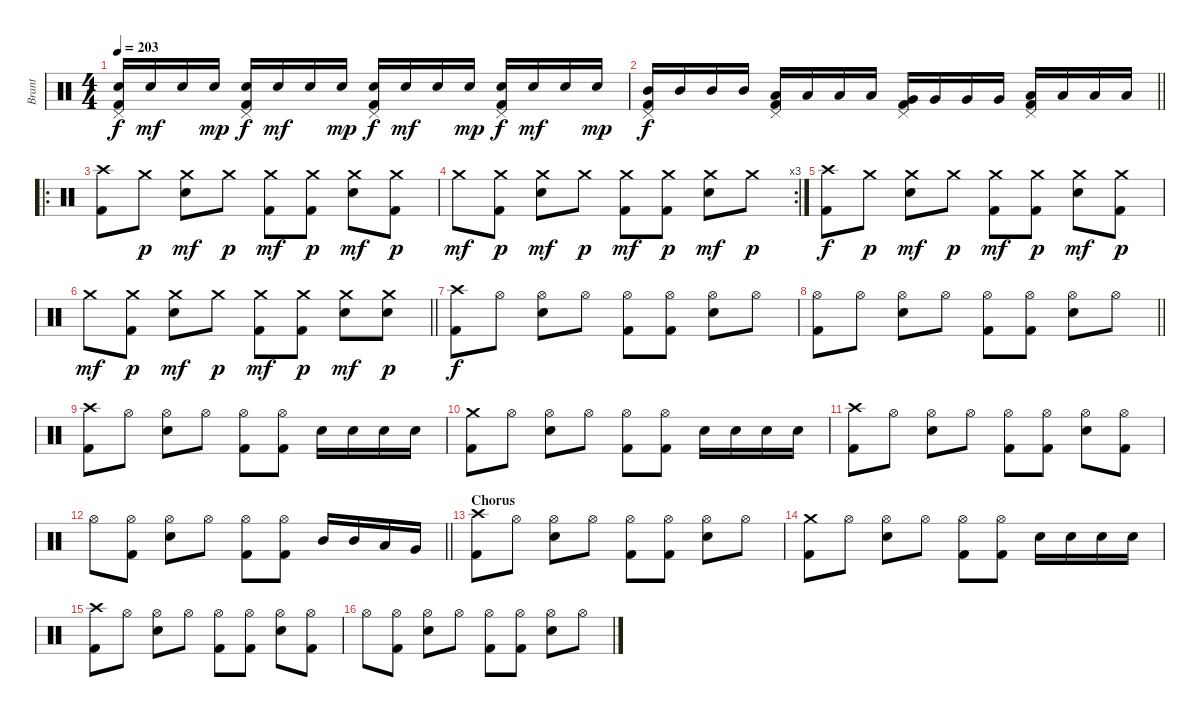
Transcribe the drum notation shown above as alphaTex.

\track ("Brant" "Brant") {instrument percussion}
\staff {score}
\articulation defaults
\ts (4 4)
\tempo 203
\clef neutral
\ks c
("Pedal Hi-Hat (hit)" "Electric Snare (hit)" "Kick (hit) 2").16{dy f} "Electric Snare (hit)".16{dy mf} "Electric Snare (hit)".16 "Electric Snare (hit)".16{dy mp} ("Pedal Hi-Hat (hit)" "Electric Snare (hit)" "Kick (hit) 2").16{dy f} "Electric Snare (hit)".16{dy mf} "Electric Snare (hit)".16 "Electric Snare (hit)".16{dy mp} ("Pedal Hi-Hat (hit)" "Electric Snare (hit)" "Kick (hit) 2").16{dy f} "Electric Snare (hit)".16{dy mf} "Electric Snare (hit)".16 "Electric Snare (hit)".16{dy mp} ("Pedal Hi-Hat (hit)" "Electric Snare (hit)" "Kick (hit) 2").16{dy f} "Electric Snare (hit)".16{dy mf} "Electric Snare (hit)".16 "Electric Snare (hit)".16{dy mp} |
\barLineRight lightlight
("Pedal Hi-Hat (hit)" "Mid Tom (hit)" "Kick (hit) 2").16{dy f} "Mid Tom (hit)".16 "Mid Tom (hit)".16 "Mid Tom (hit)".16 ("Pedal Hi-Hat (hit)" "Low Tom (hit)" "Kick (hit) 2").16 "Low Tom (hit)".16 "Low Tom (hit)".16 "Low Tom (hit)".16 ("Pedal Hi-Hat (hit)" "Very Low Tom (hit)" "Kick (hit) 2").16 "Very Low Tom (hit)".16 "Very Low Tom (hit)".16 "Very Low Tom (hit)".16 ("Pedal Hi-Hat (hit)" "Low Floor Tom (hit)" "Kick (hit) 2").16 "Low Floor Tom (hit)".16 "Low Floor Tom (hit)".16 "Low Floor Tom (hit)".16 |
\ro
\section ("" "")
("Crash high (hit)" "Kick (hit) 2").8 "Crash medium (hit)".8{dy p} ("Crash medium (hit)" "Electric Snare (hit)").8{dy mf} "Crash medium (hit)".8{dy p} ("Crash medium (hit)" "Kick (hit) 2").8{dy mf} ("Crash medium (hit)" "Kick (hit) 2").8{dy p} ("Crash medium (hit)" "Electric Snare (hit)").8{dy mf} ("Crash medium (hit)" "Kick (hit) 2").8{dy p} |
\rc 3 "Crash medium (hit)".8{dy mf}
("Crash medium (hit)" "Kick (hit) 2").8{dy p} ("Crash medium (hit)" "Electric Snare (hit)").8{dy mf} "Crash medium (hit)".8{dy p} ("Crash medium (hit)" "Kick (hit) 2").8{dy mf} ("Crash medium (hit)" "Kick (hit) 2").8{dy p} ("Crash medium (hit)" "Electric Snare (hit)").8{dy mf} "Crash medium (hit)".8{dy p} |
("Crash high (hit)" "Kick (hit) 2").8{dy f} "Crash medium (hit)".8{dy p} ("Crash medium (hit)" "Electric Snare (hit)").8{dy mf} "Crash medium (hit)".8{dy p} ("Crash medium (hit)" "Kick (hit) 2").8{dy mf} ("Crash medium (hit)" "Kick (hit) 2").8{dy p} ("Crash medium (hit)" "Electric Snare (hit)").8{dy mf} ("Crash medium (hit)" "Kick (hit) 2").8{dy p} |
\barLineRight lightlight "Crash medium (hit)".8{dy mf}
("Crash medium (hit)" "Kick (hit) 2").8{dy p} ("Crash medium (hit)" "Electric Snare (hit)").8{dy mf} "Crash medium (hit)".8{dy p} ("Crash medium (hit)" "Kick (hit) 2").8{dy mf} ("Crash medium (hit)" "Kick (hit) 2").8{dy p} ("Crash medium (hit)" "Electric Snare (hit)").8{dy mf} ("Crash medium (hit)" "Electric Snare (hit)").8{dy p} |
\section ("" "")
("Crash high (hit)" "Kick (hit) 2").8{dy f} "Hi-Hat (open)".8 ("Hi-Hat (open)" "Electric Snare (hit)").8 "Hi-Hat (open)".8 ("Hi-Hat (open)" "Kick (hit) 2").8 ("Hi-Hat (open)" "Kick (hit) 2").8 ("Hi-Hat (open)" "Electric Snare (hit)").8 "Hi-Hat (open)".8 |
\barLineRight lightlight
("Hi-Hat (open)" "Kick (hit) 2").8 "Hi-Hat (open)".8 ("Hi-Hat (open)" "Electric Snare (hit)").8 "Hi-Hat (open)".8 ("Hi-Hat (open)" "Kick (hit) 2").8 ("Hi-Hat (open)" "Kick (hit) 2").8 ("Hi-Hat (open)" "Electric Snare (hit)").8 "Hi-Hat (open)".8 |
("Crash high (hit)" "Kick (hit) 2").8 "Hi-Hat (open)".8 ("Hi-Hat (open)" "Electric Snare (hit)").8 "Hi-Hat (open)".8 ("Hi-Hat (open)" "Kick (hit) 2").8 ("Hi-Hat (open)" "Kick (hit) 2").8 "Electric Snare (hit)".16 "Electric Snare (hit)".16 "Electric Snare (hit)".16 "Electric Snare (hit)".16 |
("Crash medium (hit)" "Kick (hit) 2").8 "Hi-Hat (open)".8 ("Hi-Hat (open)" "Electric Snare (hit)").8 "Hi-Hat (open)".8 ("Hi-Hat (open)" "Kick (hit) 2").8 ("Hi-Hat (open)" "Kick (hit) 2").8 "Electric Snare (hit)".16 "Electric Snare (hit)".16 "Electric Snare (hit)".16 "Electric Snare (hit)".16 |
("Crash high (hit)" "Kick (hit) 2").8 "Hi-Hat (open)".8 ("Hi-Hat (open)" "Electric Snare (hit)").8 "Hi-Hat (open)".8 ("Hi-Hat (open)" "Kick (hit) 2").8 ("Hi-Hat (open)" "Kick (hit) 2").8 ("Hi-Hat (open)" "Electric Snare (hit)").8 ("Hi-Hat (open)" "Kick (hit) 2").8 |
\barLineRight lightlight "Hi-Hat (open)".8
("Hi-Hat (open)" "Kick (hit) 2").8 ("Hi-Hat (open)" "Electric Snare (hit)").8 "Hi-Hat (open)".8 ("Hi-Hat (open)" "Kick (hit) 2").8 ("Hi-Hat (open)" "Kick (hit) 2").8 "Mid Tom (hit)".16 "Mid Tom (hit)".16 "Low Tom (hit)".16 "Very Low Tom (hit)".16 |
\section ("" "Chorus")
("Crash high (hit)" "Kick (hit) 2").8 "Hi-Hat (open)".8 ("Hi-Hat (open)" "Electric Snare (hit)").8 "Hi-Hat (open)".8 ("Hi-Hat (open)" "Kick (hit) 2").8 ("Hi-Hat (open)" "Kick (hit) 2").8 ("Hi-Hat (open)" "Electric Snare (hit)").8 "Hi-Hat (open)".8 |
("Crash medium (hit)" "Kick (hit) 2").8 "Hi-Hat (open)".8 ("Hi-Hat (open)" "Electric Snare (hit)").8 "Hi-Hat (open)".8 ("Hi-Hat (open)" "Kick (hit) 2").8 ("Hi-Hat (open)" "Kick (hit) 2").8 "Electric Snare (hit)".16 "Electric Snare (hit)".16 "Electric Snare (hit)".16 "Electric Snare (hit)".16 |
("Crash high (hit)" "Kick (hit) 2").8 "Hi-Hat (open)".8 ("Hi-Hat (open)" "Electric Snare (hit)").8 "Hi-Hat (open)".8 ("Hi-Hat (open)" "Kick (hit) 2").8 ("Hi-Hat (open)" "Kick (hit) 2").8 ("Hi-Hat (open)" "Electric Snare (hit)").8 ("Hi-Hat (open)" "Kick (hit) 2").8 |
"Hi-Hat (open)".8 ("Hi-Hat (open)" "Kick (hit) 2").8 ("Hi-Hat (open)" "Electric Snare (hit)").8 "Hi-Hat (open)".8 ("Hi-Hat (open)" "Kick (hit) 2").8 ("Hi-Hat (open)" "Kick (hit) 2").8 ("Hi-Hat (open)" "Electric Snare (hit)").8 "Hi-Hat (open)".8
